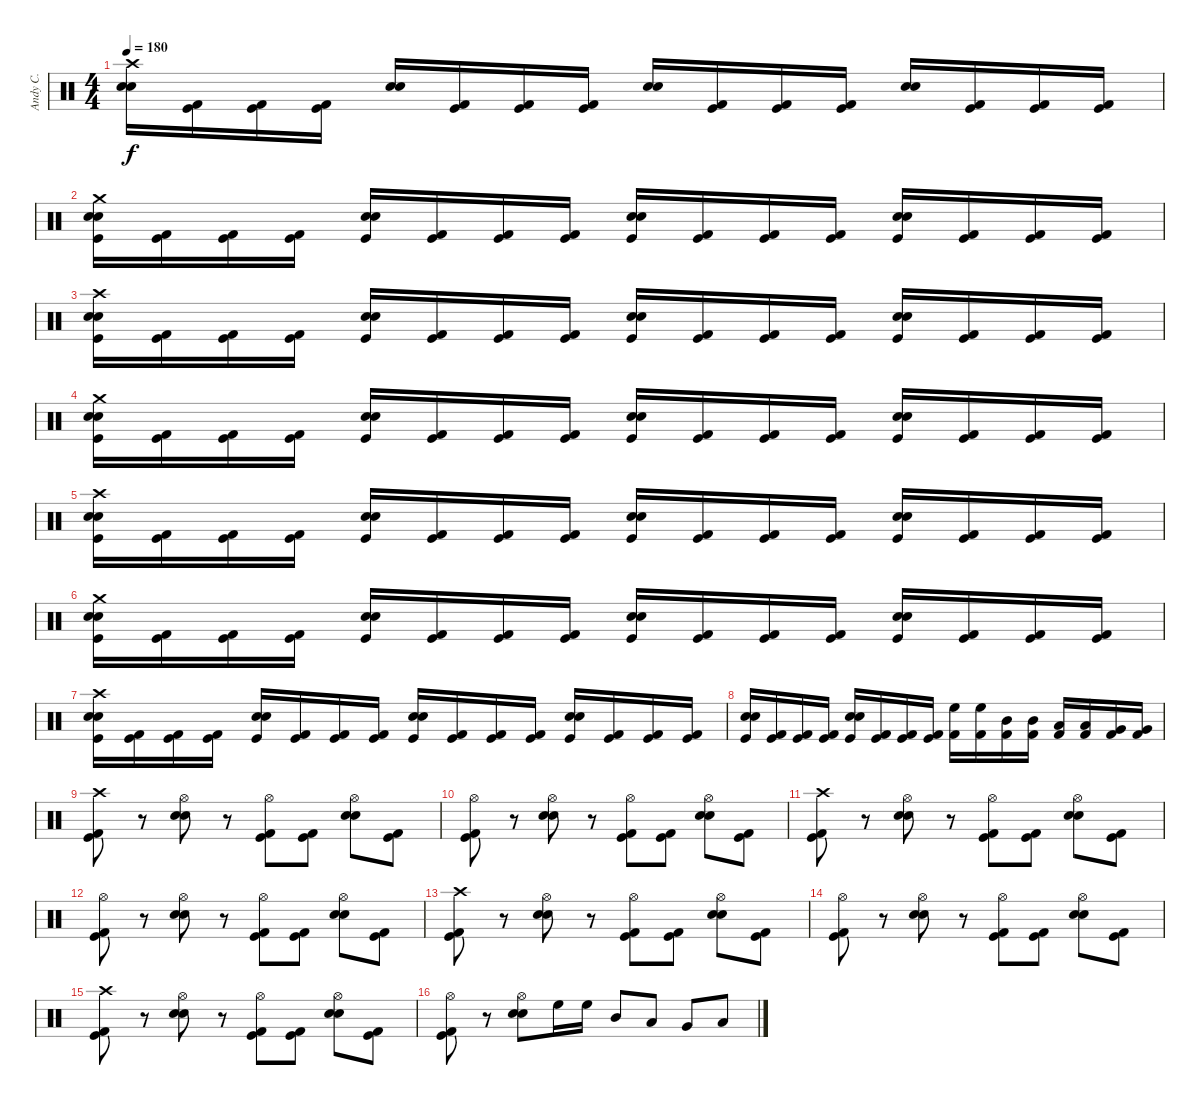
\track ("Andy C." "Andy C.") {instrument percussion}
\staff {score}
\articulation defaults
\ts (4 4)
\tempo 180
\clef neutral
\ks c
("Crash high (hit)" "Snare (hit) 2" "Electric Snare (hit)").16{dy f balance 8} ("Kick (hit)" "Kick (hit) 2").16 ("Kick (hit)" "Kick (hit) 2").16 ("Kick (hit)" "Kick (hit) 2").16 ("Snare (hit) 2" "Electric Snare (hit)").16 ("Kick (hit)" "Kick (hit) 2").16 ("Kick (hit)" "Kick (hit) 2").16 ("Kick (hit)" "Kick (hit) 2").16 ("Snare (hit) 2" "Electric Snare (hit)").16 ("Kick (hit)" "Kick (hit) 2").16 ("Kick (hit)" "Kick (hit) 2").16 ("Kick (hit)" "Kick (hit) 2").16 ("Snare (hit) 2" "Electric Snare (hit)").16 ("Kick (hit)" "Kick (hit) 2").16 ("Kick (hit)" "Kick (hit) 2").16 ("Kick (hit)" "Kick (hit) 2").16 |
("Crash medium (hit)" "Kick (hit)" "Snare (hit) 2" "Electric Snare (hit)").16 ("Kick (hit)" "Kick (hit) 2").16 ("Kick (hit)" "Kick (hit) 2").16 ("Kick (hit)" "Kick (hit) 2").16 ("Kick (hit)" "Snare (hit) 2" "Electric Snare (hit)").16 ("Kick (hit)" "Kick (hit) 2").16 ("Kick (hit)" "Kick (hit) 2").16 ("Kick (hit)" "Kick (hit) 2").16 ("Kick (hit)" "Snare (hit) 2" "Electric Snare (hit)").16 ("Kick (hit)" "Kick (hit) 2").16 ("Kick (hit)" "Kick (hit) 2").16 ("Kick (hit)" "Kick (hit) 2").16 ("Kick (hit)" "Snare (hit) 2" "Electric Snare (hit)").16 ("Kick (hit)" "Kick (hit) 2").16 ("Kick (hit)" "Kick (hit) 2").16 ("Kick (hit)" "Kick (hit) 2").16 |
("Crash high (hit)" "Kick (hit)" "Snare (hit) 2" "Electric Snare (hit)").16{balance 8} ("Kick (hit)" "Kick (hit) 2").16 ("Kick (hit)" "Kick (hit) 2").16 ("Kick (hit)" "Kick (hit) 2").16 ("Kick (hit)" "Snare (hit) 2" "Electric Snare (hit)").16 ("Kick (hit)" "Kick (hit) 2").16 ("Kick (hit)" "Kick (hit) 2").16 ("Kick (hit)" "Kick (hit) 2").16 ("Kick (hit)" "Snare (hit) 2" "Electric Snare (hit)").16 ("Kick (hit)" "Kick (hit) 2").16 ("Kick (hit)" "Kick (hit) 2").16 ("Kick (hit)" "Kick (hit) 2").16 ("Kick (hit)" "Snare (hit) 2" "Electric Snare (hit)").16 ("Kick (hit)" "Kick (hit) 2").16 ("Kick (hit)" "Kick (hit) 2").16 ("Kick (hit)" "Kick (hit) 2").16 |
("Crash medium (hit)" "Kick (hit)" "Snare (hit) 2" "Electric Snare (hit)").16 ("Kick (hit)" "Kick (hit) 2").16 ("Kick (hit)" "Kick (hit) 2").16 ("Kick (hit)" "Kick (hit) 2").16 ("Kick (hit)" "Snare (hit) 2" "Electric Snare (hit)").16 ("Kick (hit)" "Kick (hit) 2").16 ("Kick (hit)" "Kick (hit) 2").16 ("Kick (hit)" "Kick (hit) 2").16 ("Kick (hit)" "Snare (hit) 2" "Electric Snare (hit)").16 ("Kick (hit)" "Kick (hit) 2").16 ("Kick (hit)" "Kick (hit) 2").16 ("Kick (hit)" "Kick (hit) 2").16 ("Kick (hit)" "Snare (hit) 2" "Electric Snare (hit)").16 ("Kick (hit)" "Kick (hit) 2").16 ("Kick (hit)" "Kick (hit) 2").16 ("Kick (hit)" "Kick (hit) 2").16 |
("Crash high (hit)" "Kick (hit)" "Snare (hit) 2" "Electric Snare (hit)").16{balance 8} ("Kick (hit)" "Kick (hit) 2").16 ("Kick (hit)" "Kick (hit) 2").16 ("Kick (hit)" "Kick (hit) 2").16 ("Kick (hit)" "Snare (hit) 2" "Electric Snare (hit)").16 ("Kick (hit)" "Kick (hit) 2").16 ("Kick (hit)" "Kick (hit) 2").16 ("Kick (hit)" "Kick (hit) 2").16 ("Kick (hit)" "Snare (hit) 2" "Electric Snare (hit)").16 ("Kick (hit)" "Kick (hit) 2").16 ("Kick (hit)" "Kick (hit) 2").16 ("Kick (hit)" "Kick (hit) 2").16 ("Kick (hit)" "Snare (hit) 2" "Electric Snare (hit)").16 ("Kick (hit)" "Kick (hit) 2").16 ("Kick (hit)" "Kick (hit) 2").16 ("Kick (hit)" "Kick (hit) 2").16 |
("Crash medium (hit)" "Kick (hit)" "Snare (hit) 2" "Electric Snare (hit)").16 ("Kick (hit)" "Kick (hit) 2").16 ("Kick (hit)" "Kick (hit) 2").16 ("Kick (hit)" "Kick (hit) 2").16 ("Kick (hit)" "Snare (hit) 2" "Electric Snare (hit)").16 ("Kick (hit)" "Kick (hit) 2").16 ("Kick (hit)" "Kick (hit) 2").16 ("Kick (hit)" "Kick (hit) 2").16 ("Kick (hit)" "Snare (hit) 2" "Electric Snare (hit)").16 ("Kick (hit)" "Kick (hit) 2").16 ("Kick (hit)" "Kick (hit) 2").16 ("Kick (hit)" "Kick (hit) 2").16 ("Kick (hit)" "Snare (hit) 2" "Electric Snare (hit)").16 ("Kick (hit)" "Kick (hit) 2").16 ("Kick (hit)" "Kick (hit) 2").16 ("Kick (hit)" "Kick (hit) 2").16 |
("Crash high (hit)" "Kick (hit)" "Snare (hit) 2" "Electric Snare (hit)").16{balance 8} ("Kick (hit)" "Kick (hit) 2").16 ("Kick (hit)" "Kick (hit) 2").16 ("Kick (hit)" "Kick (hit) 2").16 ("Kick (hit)" "Snare (hit) 2" "Electric Snare (hit)").16 ("Kick (hit)" "Kick (hit) 2").16 ("Kick (hit)" "Kick (hit) 2").16 ("Kick (hit)" "Kick (hit) 2").16 ("Kick (hit)" "Snare (hit) 2" "Electric Snare (hit)").16 ("Kick (hit)" "Kick (hit) 2").16 ("Kick (hit)" "Kick (hit) 2").16 ("Kick (hit)" "Kick (hit) 2").16 ("Kick (hit)" "Snare (hit) 2" "Electric Snare (hit)").16 ("Kick (hit)" "Kick (hit) 2").16 ("Kick (hit)" "Kick (hit) 2").16 ("Kick (hit)" "Kick (hit) 2").16 |
("Kick (hit)" "Snare (hit) 2" "Electric Snare (hit)").16 ("Kick (hit)" "Kick (hit) 2").16 ("Kick (hit)" "Kick (hit) 2").16 ("Kick (hit)" "Kick (hit) 2").16 ("Kick (hit)" "Snare (hit) 2" "Electric Snare (hit)").16 ("Kick (hit)" "Kick (hit) 2").16 ("Kick (hit)" "Kick (hit) 2").16 ("Kick (hit)" "Kick (hit) 2").16 ("Kick (hit) 2" "High Floor Tom (hit)").16{balance 16} ("Kick (hit) 2" "High Floor Tom (hit)").16{balance 16} ("Kick (hit) 2" "Mid Tom (hit)").16{balance 11} ("Kick (hit) 2" "Mid Tom (hit)").16{balance 11} ("Kick (hit) 2" "Low Tom (hit)").16{balance 8} ("Kick (hit) 2" "Low Tom (hit)").16{balance 8} ("Kick (hit) 2" "Very Low Tom (hit)").16{balance 0} ("Kick (hit) 2" "Very Low Tom (hit)").16{balance 0} |
("Crash high (hit)" "Kick (hit)" "Kick (hit) 2").8{balance 8} r.8 ("Hi-Hat (open)" "Snare (hit) 2" "Electric Snare (hit)").8 r.8 ("Hi-Hat (open)" "Kick (hit)" "Kick (hit) 2").8 ("Kick (hit)" "Kick (hit) 2").8 ("Hi-Hat (open)" "Snare (hit) 2" "Electric Snare (hit)").8 ("Kick (hit)" "Kick (hit) 2").8 |
("Hi-Hat (open)" "Kick (hit)" "Kick (hit) 2").8 r.8 ("Hi-Hat (open)" "Snare (hit) 2" "Electric Snare (hit)").8 r.8 ("Hi-Hat (open)" "Kick (hit)" "Kick (hit) 2").8 ("Kick (hit)" "Kick (hit) 2").8 ("Hi-Hat (open)" "Snare (hit) 2" "Electric Snare (hit)").8 ("Kick (hit)" "Kick (hit) 2").8 |
("Crash high (hit)" "Kick (hit)" "Kick (hit) 2").8 r.8 ("Hi-Hat (open)" "Snare (hit) 2" "Electric Snare (hit)").8 r.8 ("Hi-Hat (open)" "Kick (hit)" "Kick (hit) 2").8 ("Kick (hit)" "Kick (hit) 2").8 ("Hi-Hat (open)" "Snare (hit) 2" "Electric Snare (hit)").8 ("Kick (hit)" "Kick (hit) 2").8 |
("Hi-Hat (open)" "Kick (hit)" "Kick (hit) 2").8 r.8 ("Hi-Hat (open)" "Snare (hit) 2" "Electric Snare (hit)").8 r.8 ("Hi-Hat (open)" "Kick (hit)" "Kick (hit) 2").8 ("Kick (hit)" "Kick (hit) 2").8 ("Hi-Hat (open)" "Snare (hit) 2" "Electric Snare (hit)").8 ("Kick (hit)" "Kick (hit) 2").8 |
("Crash high (hit)" "Kick (hit)" "Kick (hit) 2").8 r.8 ("Hi-Hat (open)" "Snare (hit) 2" "Electric Snare (hit)").8 r.8 ("Hi-Hat (open)" "Kick (hit)" "Kick (hit) 2").8 ("Kick (hit)" "Kick (hit) 2").8 ("Hi-Hat (open)" "Snare (hit) 2" "Electric Snare (hit)").8 ("Kick (hit)" "Kick (hit) 2").8 |
("Hi-Hat (open)" "Kick (hit)" "Kick (hit) 2").8 r.8 ("Hi-Hat (open)" "Snare (hit) 2" "Electric Snare (hit)").8 r.8 ("Hi-Hat (open)" "Kick (hit)" "Kick (hit) 2").8 ("Kick (hit)" "Kick (hit) 2").8 ("Hi-Hat (open)" "Snare (hit) 2" "Electric Snare (hit)").8 ("Kick (hit)" "Kick (hit) 2").8 |
("Crash high (hit)" "Kick (hit)" "Kick (hit) 2").8 r.8 ("Hi-Hat (open)" "Snare (hit) 2" "Electric Snare (hit)").8 r.8 ("Hi-Hat (open)" "Kick (hit)" "Kick (hit) 2").8 ("Kick (hit)" "Kick (hit) 2").8 ("Hi-Hat (open)" "Snare (hit) 2" "Electric Snare (hit)").8 ("Kick (hit)" "Kick (hit) 2").8 |
("Hi-Hat (open)" "Kick (hit)" "Kick (hit) 2").8 r.8 ("Hi-Hat (open)" "Snare (hit) 2" "Electric Snare (hit)").8 "High Floor Tom (hit)".16 "High Floor Tom (hit)".16 "Mid Tom (hit)".8 "Low Tom (hit)".8 "Very Low Tom (hit)".8 "Low Floor Tom (hit)".8
